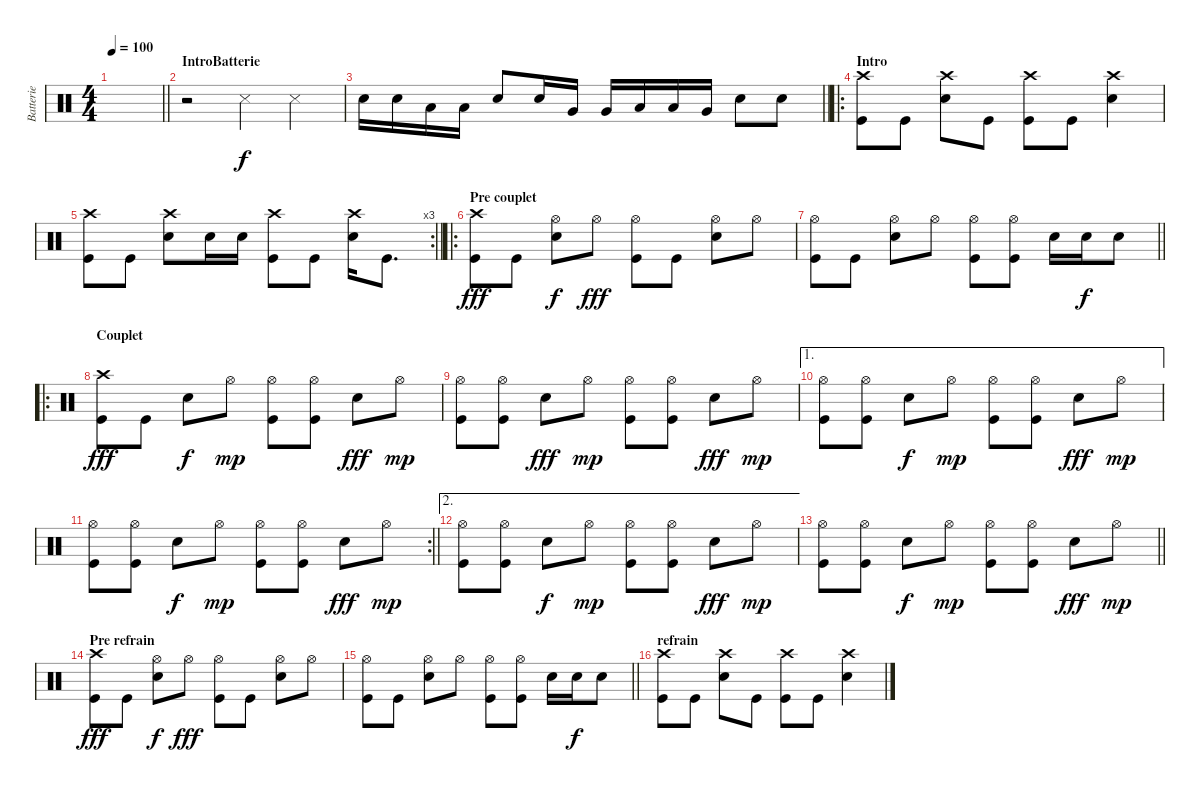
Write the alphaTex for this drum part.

\track ("Batterie" "Batterie") {instrument percussion}
\staff {score}
\articulation defaults
\ts (4 4)
\tempo 100
\clef neutral
\barLineRight lightlight
\ks c
|
\section ("" "IntroBatterie")
r.2 "Snare (side stick) 3".4 "Snare (side stick) 3".4 |
\barLineRight lightlight "Snare (hit) 2".16 "Snare (hit) 2".16 "Low Tom (hit)".16 "Low Tom (hit)".16 "Snare (hit) 2".8 "Snare (hit) 2".16 "Very Low Tom (hit)".16 "Very Low Tom (hit)".16 "Low Tom (hit)".16 "Low Tom (hit)".16 "Very Low Tom (hit)".16 "Snare (hit) 2".8 "Snare (hit) 2".8
|
\ro
\section ("" "Intro")
("Crash high (hit)" "Kick (hit)").8 "Kick (hit)".8 ("Snare (hit) 2" "Crash high (hit)").8 "Kick (hit)".8 ("Crash high (hit)" "Kick (hit)").8 "Kick (hit)".8 ("Snare (hit) 2" "Crash high (hit)").4 |
\rc 3
\barLineRight lightlight
("Crash high (hit)" "Kick (hit)").8 "Kick (hit)".8 ("Snare (hit) 2" "Crash high (hit)").8 "Snare (hit) 2".16 "Snare (hit) 2".16 ("Crash high (hit)" "Kick (hit)").8 "Kick (hit)".8 ("Snare (hit) 2" "Crash high (hit)").16 "Kick (hit)".8{d} |
\ro
\section ("" "Pre couplet")
("Kick (hit)" "Crash high (hit)").8{dy fff} "Kick (hit)".8 ("Hi-Hat (open)" "Electric Snare (hit)").8{dy f} "Hi-Hat (open)".8{dy fff} ("Kick (hit)" "Hi-Hat (open)").8 "Kick (hit)".8 ("Snare (hit) 2" "Hi-Hat (open)").8 "Hi-Hat (open)".8 |
\barLineRight lightlight
("Kick (hit)" "Hi-Hat (open)").8 "Kick (hit)".8 ("Snare (hit) 2" "Hi-Hat (open)").8 "Hi-Hat (open)".8 ("Kick (hit)" "Hi-Hat (open)").8 ("Kick (hit)" "Hi-Hat (open)").8 "Snare (hit) 2".16 "Snare (hit) 2".16{dy f} "Snare (hit) 2".8 |
\ro
\section ("" "Couplet")
("Kick (hit)" "Crash high (hit)").8{dy fff} "Kick (hit)".8 "Electric Snare (hit)".8{dy f} "Hi-Hat (open)".8{dy mp} ("Kick (hit)" "Hi-Hat (open)").8 ("Kick (hit)" "Hi-Hat (open)").8 "Snare (hit) 2".8{dy fff} "Hi-Hat (open)".8{dy mp} |
("Kick (hit)" "Hi-Hat (open)").8 ("Kick (hit)" "Hi-Hat (open)").8 "Snare (hit) 2".8{dy fff} "Hi-Hat (open)".8{dy mp} ("Kick (hit)" "Hi-Hat (open)").8 ("Kick (hit)" "Hi-Hat (open)").8 "Snare (hit) 2".8{dy fff} "Hi-Hat (open)".8{dy mp} |
\ae 1
("Kick (hit)" "Hi-Hat (open)").8 ("Kick (hit)" "Hi-Hat (open)").8 "Electric Snare (hit)".8{dy f} "Hi-Hat (open)".8{dy mp} ("Kick (hit)" "Hi-Hat (open)").8 ("Kick (hit)" "Hi-Hat (open)").8 "Snare (hit) 2".8{dy fff} "Hi-Hat (open)".8{dy mp} |
\rc 2
\barLineRight lightlight
("Kick (hit)" "Hi-Hat (open)").8 ("Kick (hit)" "Hi-Hat (open)").8 "Electric Snare (hit)".8{dy f} "Hi-Hat (open)".8{dy mp} ("Kick (hit)" "Hi-Hat (open)").8 ("Kick (hit)" "Hi-Hat (open)").8 "Snare (hit) 2".8{dy fff} "Hi-Hat (open)".8{dy mp} |
\ae 2
("Kick (hit)" "Hi-Hat (open)").8 ("Kick (hit)" "Hi-Hat (open)").8 "Electric Snare (hit)".8{dy f} "Hi-Hat (open)".8{dy mp} ("Kick (hit)" "Hi-Hat (open)").8 ("Kick (hit)" "Hi-Hat (open)").8 "Snare (hit) 2".8{dy fff} "Hi-Hat (open)".8{dy mp} |
\barLineRight lightlight
("Kick (hit)" "Hi-Hat (open)").8 ("Kick (hit)" "Hi-Hat (open)").8 "Electric Snare (hit)".8{dy f} "Hi-Hat (open)".8{dy mp} ("Kick (hit)" "Hi-Hat (open)").8 ("Kick (hit)" "Hi-Hat (open)").8 "Snare (hit) 2".8{dy fff} "Hi-Hat (open)".8{dy mp} |
\section ("" "Pre refrain")
("Kick (hit)" "Crash high (hit)").8{dy fff} "Kick (hit)".8 ("Hi-Hat (open)" "Electric Snare (hit)").8{dy f} "Hi-Hat (open)".8{dy fff} ("Kick (hit)" "Hi-Hat (open)").8 "Kick (hit)".8 ("Snare (hit) 2" "Hi-Hat (open)").8 "Hi-Hat (open)".8 |
\barLineRight lightlight
("Kick (hit)" "Hi-Hat (open)").8 "Kick (hit)".8 ("Snare (hit) 2" "Hi-Hat (open)").8 "Hi-Hat (open)".8 ("Kick (hit)" "Hi-Hat (open)").8 ("Kick (hit)" "Hi-Hat (open)").8 "Snare (hit) 2".16 "Snare (hit) 2".16{dy f} "Snare (hit) 2".8 |
\section ("" "refrain")
("Crash high (hit)" "Kick (hit)").8 "Kick (hit)".8 ("Snare (hit) 2" "Crash high (hit)").8 "Kick (hit)".8 ("Crash high (hit)" "Kick (hit)").8 "Kick (hit)".8 ("Snare (hit) 2" "Crash high (hit)").4
